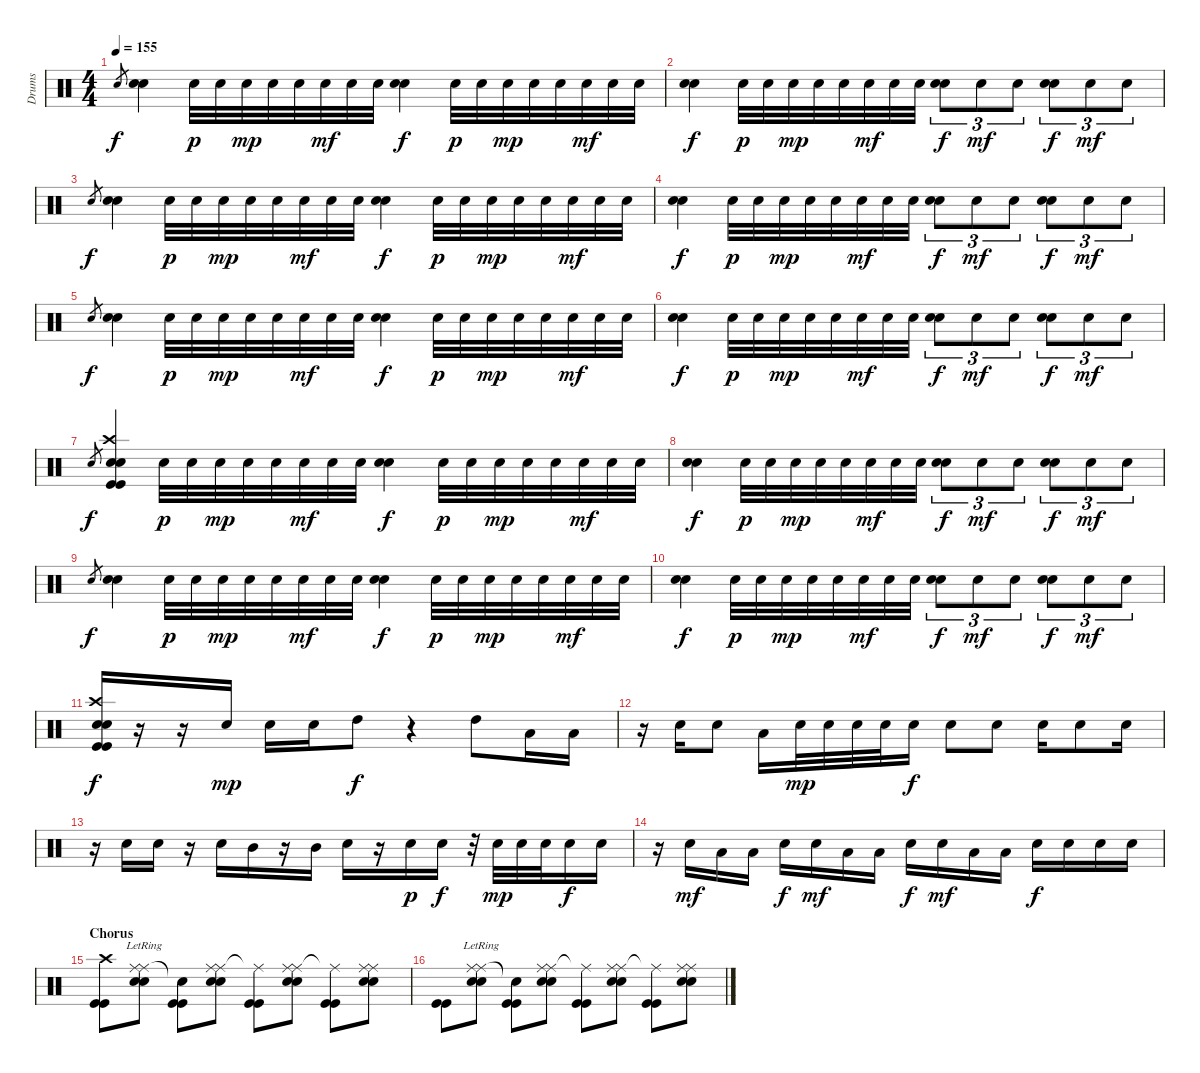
\track ("Drums" "Drums") {instrument percussion}
\staff {score}
\articulation defaults
\ts (4 4)
\tempo 155
\clef neutral
\ks c "Snare (hit) 2".8{gr dy f}
("Snare (hit) 2" "Snare (hit) 2").4 "Snare (hit) 2".32{dy p} "Snare (hit) 2".32 "Snare (hit) 2".32{dy mp} "Snare (hit) 2".32 "Snare (hit) 2".32 "Snare (hit) 2".32{dy mf} "Snare (hit) 2".32 "Snare (hit) 2".32 ("Snare (hit) 2" "Snare (hit) 2").4{dy f} "Snare (hit) 2".32{dy p} "Snare (hit) 2".32 "Snare (hit) 2".32{dy mp} "Snare (hit) 2".32 "Snare (hit) 2".32 "Snare (hit) 2".32{dy mf} "Snare (hit) 2".32 "Snare (hit) 2".32 |
("Snare (hit) 2" "Snare (hit) 2").4{dy f} "Snare (hit) 2".32{dy p} "Snare (hit) 2".32 "Snare (hit) 2".32{dy mp} "Snare (hit) 2".32 "Snare (hit) 2".32 "Snare (hit) 2".32{dy mf} "Snare (hit) 2".32 "Snare (hit) 2".32 ("Snare (hit) 2" "Snare (hit) 2").8{tu (3 2) dy f} "Snare (hit) 2".8{tu (3 2) dy mf} "Snare (hit) 2".8{tu (3 2)} ("Snare (hit) 2" "Snare (hit) 2").8{tu (3 2) dy f} "Snare (hit) 2".8{tu (3 2) dy mf} "Snare (hit) 2".8{tu (3 2)} |
"Snare (hit) 2".8{gr dy f} ("Snare (hit) 2" "Snare (hit) 2").4 "Snare (hit) 2".32{dy p} "Snare (hit) 2".32 "Snare (hit) 2".32{dy mp} "Snare (hit) 2".32 "Snare (hit) 2".32 "Snare (hit) 2".32{dy mf} "Snare (hit) 2".32 "Snare (hit) 2".32 ("Snare (hit) 2" "Snare (hit) 2").4{dy f} "Snare (hit) 2".32{dy p} "Snare (hit) 2".32 "Snare (hit) 2".32{dy mp} "Snare (hit) 2".32 "Snare (hit) 2".32 "Snare (hit) 2".32{dy mf} "Snare (hit) 2".32 "Snare (hit) 2".32 |
("Snare (hit) 2" "Snare (hit) 2").4{dy f} "Snare (hit) 2".32{dy p} "Snare (hit) 2".32 "Snare (hit) 2".32{dy mp} "Snare (hit) 2".32 "Snare (hit) 2".32 "Snare (hit) 2".32{dy mf} "Snare (hit) 2".32 "Snare (hit) 2".32 ("Snare (hit) 2" "Snare (hit) 2").8{tu (3 2) dy f} "Snare (hit) 2".8{tu (3 2) dy mf} "Snare (hit) 2".8{tu (3 2)} ("Snare (hit) 2" "Snare (hit) 2").8{tu (3 2) dy f} "Snare (hit) 2".8{tu (3 2) dy mf} "Snare (hit) 2".8{tu (3 2)} |
"Snare (hit) 2".8{gr dy f} ("Snare (hit) 2" "Snare (hit) 2").4 "Snare (hit) 2".32{dy p} "Snare (hit) 2".32 "Snare (hit) 2".32{dy mp} "Snare (hit) 2".32 "Snare (hit) 2".32 "Snare (hit) 2".32{dy mf} "Snare (hit) 2".32 "Snare (hit) 2".32 ("Snare (hit) 2" "Snare (hit) 2").4{dy f} "Snare (hit) 2".32{dy p} "Snare (hit) 2".32 "Snare (hit) 2".32{dy mp} "Snare (hit) 2".32 "Snare (hit) 2".32 "Snare (hit) 2".32{dy mf} "Snare (hit) 2".32 "Snare (hit) 2".32 |
("Snare (hit) 2" "Snare (hit) 2").4{dy f} "Snare (hit) 2".32{dy p} "Snare (hit) 2".32 "Snare (hit) 2".32{dy mp} "Snare (hit) 2".32 "Snare (hit) 2".32 "Snare (hit) 2".32{dy mf} "Snare (hit) 2".32 "Snare (hit) 2".32 ("Snare (hit) 2" "Snare (hit) 2").8{tu (3 2) dy f} "Snare (hit) 2".8{tu (3 2) dy mf} "Snare (hit) 2".8{tu (3 2)} ("Snare (hit) 2" "Snare (hit) 2").8{tu (3 2) dy f} "Snare (hit) 2".8{tu (3 2) dy mf} "Snare (hit) 2".8{tu (3 2)} |
"Snare (hit) 2".8{gr dy f} ("Crash high (hit)" "Snare (hit) 2" "Snare (hit) 2" "Kick (hit)" "Kick (hit)").4{volume 12} "Snare (hit) 2".32{dy p volume 9} "Snare (hit) 2".32 "Snare (hit) 2".32{dy mp} "Snare (hit) 2".32 "Snare (hit) 2".32 "Snare (hit) 2".32{dy mf} "Snare (hit) 2".32 "Snare (hit) 2".32 ("Snare (hit) 2" "Snare (hit) 2").4{dy f} "Snare (hit) 2".32{dy p} "Snare (hit) 2".32 "Snare (hit) 2".32{dy mp} "Snare (hit) 2".32 "Snare (hit) 2".32 "Snare (hit) 2".32{dy mf} "Snare (hit) 2".32 "Snare (hit) 2".32 |
("Snare (hit) 2" "Snare (hit) 2").4{dy f} "Snare (hit) 2".32{dy p} "Snare (hit) 2".32 "Snare (hit) 2".32{dy mp} "Snare (hit) 2".32 "Snare (hit) 2".32 "Snare (hit) 2".32{dy mf} "Snare (hit) 2".32 "Snare (hit) 2".32 ("Snare (hit) 2" "Snare (hit) 2").8{tu (3 2) dy f} "Snare (hit) 2".8{tu (3 2) dy mf} "Snare (hit) 2".8{tu (3 2)} ("Snare (hit) 2" "Snare (hit) 2").8{tu (3 2) dy f} "Snare (hit) 2".8{tu (3 2) dy mf} "Snare (hit) 2".8{tu (3 2)} |
"Snare (hit) 2".8{gr dy f} ("Snare (hit) 2" "Snare (hit) 2").4 "Snare (hit) 2".32{dy p} "Snare (hit) 2".32 "Snare (hit) 2".32{dy mp} "Snare (hit) 2".32 "Snare (hit) 2".32 "Snare (hit) 2".32{dy mf} "Snare (hit) 2".32 "Snare (hit) 2".32 ("Snare (hit) 2" "Snare (hit) 2").4{dy f} "Snare (hit) 2".32{dy p} "Snare (hit) 2".32 "Snare (hit) 2".32{dy mp} "Snare (hit) 2".32 "Snare (hit) 2".32 "Snare (hit) 2".32{dy mf} "Snare (hit) 2".32 "Snare (hit) 2".32 |
("Snare (hit) 2" "Snare (hit) 2").4{dy f volume 11} "Snare (hit) 2".32{dy p} "Snare (hit) 2".32 "Snare (hit) 2".32{dy mp} "Snare (hit) 2".32 "Snare (hit) 2".32 "Snare (hit) 2".32{dy mf} "Snare (hit) 2".32 "Snare (hit) 2".32 ("Snare (hit) 2" "Snare (hit) 2").8{tu (3 2) dy f} "Snare (hit) 2".8{tu (3 2) dy mf} "Snare (hit) 2".8{tu (3 2)} ("Snare (hit) 2" "Snare (hit) 2").8{tu (3 2) dy f} "Snare (hit) 2".8{tu (3 2) dy mf} "Snare (hit) 2".8{tu (3 2)} |
("Crash high (hit)" "Snare (hit) 2" "Snare (hit) 2" "Kick (hit)" "Kick (hit)").16{dy f volume 12} r.16{volume 13} r.16 "Snare (hit) 2".16{dy mp} "Snare (hit) 2".16 "Snare (hit) 2".16 "High Tom (hit)".8{dy f} r.4 "High Tom (hit)".8 "Low Tom (hit)".16 "Low Tom (hit)".16 |
r.16 "Snare (hit) 2".16 "Snare (hit) 2".8 "Low Tom (hit)".16 "Snare (hit) 2".32{dy mp} "Snare (hit) 2".32 "Snare (hit) 2".32 "Snare (hit) 2".32 "Snare (hit) 2".16{dy f} "Snare (hit) 2".8 "Snare (hit) 2".8 "Snare (hit) 2".16 "Snare (hit) 2".8 "Snare (hit) 2".16 |
r.16{volume 15} "Snare (hit) 2".16 "Snare (hit) 2".16 r.16 "Snare (hit) 2".16 "Mid Tom (hit)".16 r.16 "Mid Tom (hit)".16 "Snare (hit) 2".16 r.16 "Snare (hit) 2".16{dy p} "Snare (hit) 2".16{dy f} r.32 "Snare (hit) 2".32{dy mp} "Snare (hit) 2".32 "Snare (hit) 2".32 "Snare (hit) 2".16{dy f} "Snare (hit) 2".16 |
r.16 "Snare (hit) 2".16{dy mf} "Low Tom (hit)".16 "Low Tom (hit)".16 "Snare (hit) 2".16{dy f} "Snare (hit) 2".16{dy mf} "Low Tom (hit)".16 "Low Tom (hit)".16 "Snare (hit) 2".16{dy f} "Snare (hit) 2".16{dy mf} "Low Tom (hit)".16 "Low Tom (hit)".16 "Snare (hit) 2".16{dy f} "Snare (hit) 2".16 "Snare (hit) 2".16 "Snare (hit) 2".16 |
\section ("" "Chorus")
("Crash high (hit)" "Kick (hit)" "Kick (hit)").8{volume 12} ("Ride (middle)"{lr} "Snare (hit) 2" "Snare (hit) 2" "Ride (middle)").8 ("Snare (hit)"{t} "Kick (hit)" "Kick (hit)").8 ("Ride (middle)" "Snare (hit) 2" "Snare (hit) 2" "Ride (middle)").8 ("Ride (middle)"{t} "Kick (hit)" "Kick (hit)").8 ("Ride (middle)" "Snare (hit) 2" "Snare (hit) 2" "Ride (middle)").8 ("Ride (middle)"{t} "Kick (hit)" "Kick (hit)").8 ("Ride (middle)" "Snare (hit) 2" "Snare (hit) 2" "Ride (middle)").8 |
("Kick (hit)" "Kick (hit)").8 ("Ride (middle)"{lr} "Snare (hit) 2" "Snare (hit) 2" "Ride (middle)").8 ("Snare (hit)"{t} "Kick (hit)" "Kick (hit)").8 ("Ride (middle)" "Snare (hit) 2" "Snare (hit) 2" "Ride (middle)").8 ("Ride (middle)"{t} "Kick (hit)" "Kick (hit)").8 ("Ride (middle)" "Snare (hit) 2" "Snare (hit) 2" "Ride (middle)").8 ("Ride (middle)"{t} "Kick (hit)" "Kick (hit)").8 ("Ride (middle)" "Snare (hit) 2" "Snare (hit) 2" "Ride (middle)").8
